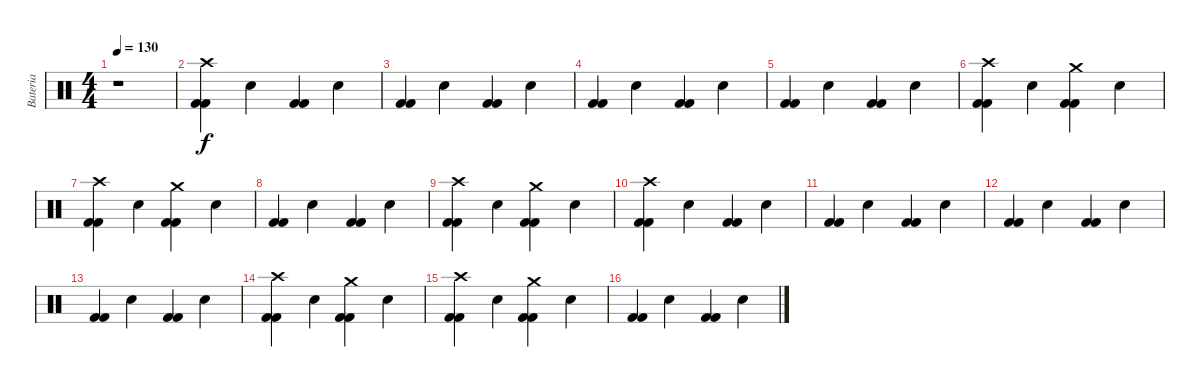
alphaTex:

\track ("Bateria" "Bateria") {instrument percussion}
\staff {score}
\articulation defaults
\ts (4 4)
\tempo 130
\clef neutral
\ks c
r.1{dy f} |
("Kick (hit) 2" "Kick (hit) 2" "Crash high (hit)").4 "Snare (hit) 2".4 ("Kick (hit) 2" "Kick (hit) 2").4 "Snare (hit) 2".4 |
("Kick (hit) 2" "Kick (hit) 2").4 "Snare (hit) 2".4 ("Kick (hit) 2" "Kick (hit) 2").4 "Snare (hit) 2".4 |
("Kick (hit) 2" "Kick (hit) 2").4 "Snare (hit) 2".4 ("Kick (hit) 2" "Kick (hit) 2").4 "Snare (hit) 2".4 |
("Kick (hit) 2" "Kick (hit) 2").4 "Snare (hit) 2".4 ("Kick (hit) 2" "Kick (hit) 2").4 "Snare (hit) 2".4 |
("Kick (hit) 2" "Kick (hit) 2" "Crash high (hit)").4 "Snare (hit) 2".4 ("Kick (hit) 2" "Kick (hit) 2" "Crash medium (hit)").4 "Snare (hit) 2".4 |
("Kick (hit) 2" "Kick (hit) 2" "Crash high (hit)").4 "Snare (hit) 2".4 ("Kick (hit) 2" "Kick (hit) 2" "Crash medium (hit)").4 "Snare (hit) 2".4 |
("Kick (hit) 2" "Kick (hit) 2").4 "Snare (hit) 2".4 ("Kick (hit) 2" "Kick (hit) 2").4 "Snare (hit) 2".4 |
("Kick (hit) 2" "Kick (hit) 2" "Crash high (hit)").4 "Snare (hit) 2".4 ("Kick (hit) 2" "Kick (hit) 2" "Crash medium (hit)").4 "Snare (hit) 2".4 |
("Kick (hit) 2" "Kick (hit) 2" "Crash high (hit)").4 "Snare (hit) 2".4 ("Kick (hit) 2" "Kick (hit) 2").4 "Snare (hit) 2".4 |
("Kick (hit) 2" "Kick (hit) 2").4 "Snare (hit) 2".4 ("Kick (hit) 2" "Kick (hit) 2").4 "Snare (hit) 2".4 |
("Kick (hit) 2" "Kick (hit) 2").4 "Snare (hit) 2".4 ("Kick (hit) 2" "Kick (hit) 2").4 "Snare (hit) 2".4 |
("Kick (hit) 2" "Kick (hit) 2").4 "Snare (hit) 2".4 ("Kick (hit) 2" "Kick (hit) 2").4 "Snare (hit) 2".4 |
("Kick (hit) 2" "Kick (hit) 2" "Crash high (hit)").4 "Snare (hit) 2".4 ("Kick (hit) 2" "Kick (hit) 2" "Crash medium (hit)").4 "Snare (hit) 2".4 |
("Kick (hit) 2" "Kick (hit) 2" "Crash high (hit)").4 "Snare (hit) 2".4 ("Kick (hit) 2" "Kick (hit) 2" "Crash medium (hit)").4 "Snare (hit) 2".4 |
("Kick (hit) 2" "Kick (hit) 2").4 "Snare (hit) 2".4 ("Kick (hit) 2" "Kick (hit) 2").4 "Snare (hit) 2".4
